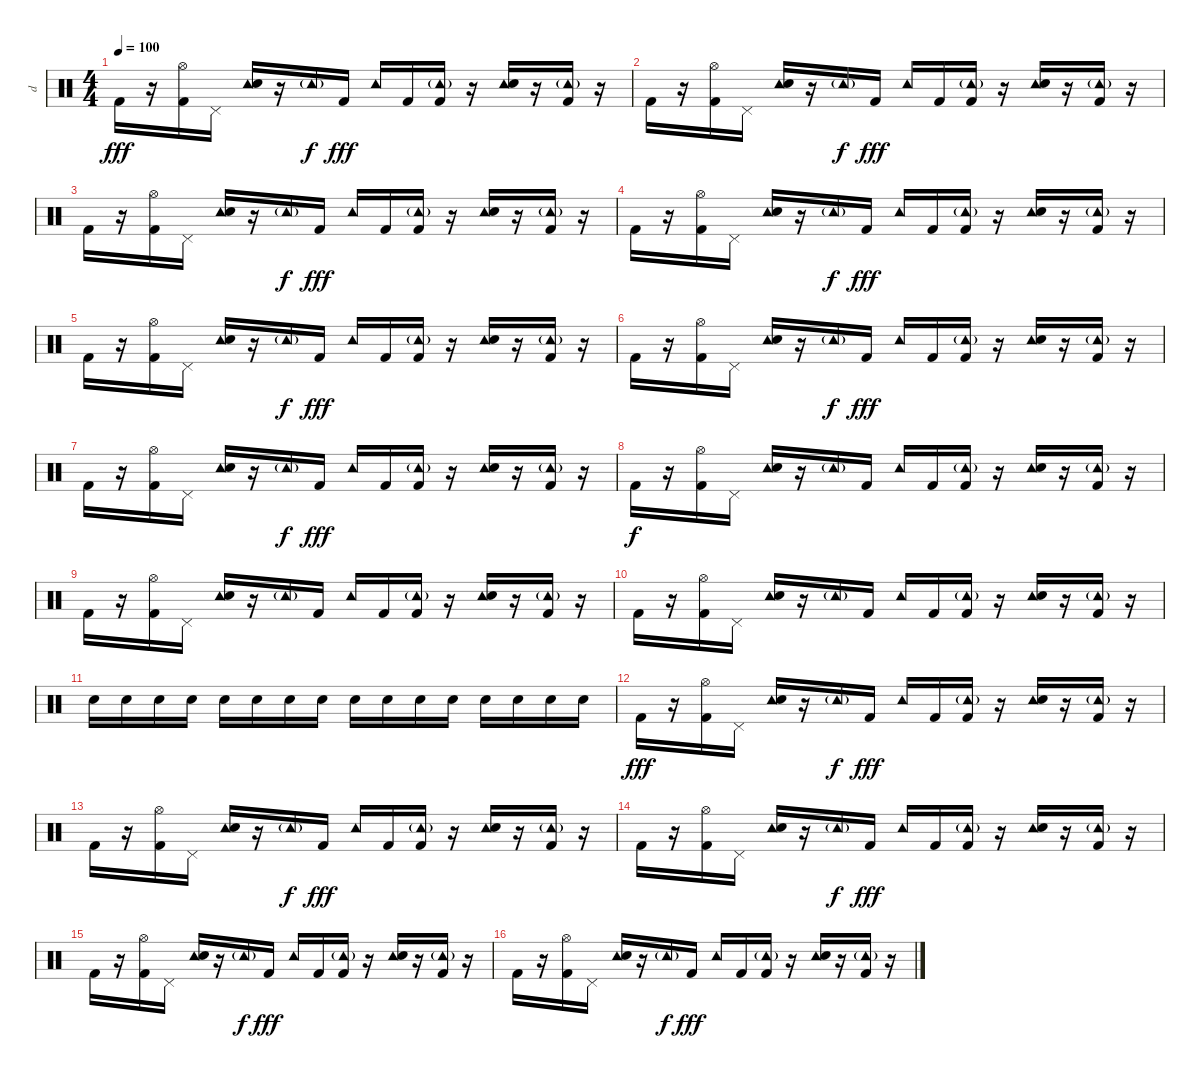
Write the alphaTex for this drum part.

\track ("d" "d") {instrument percussion}
\staff {score}
\articulation defaults
\ts (4 4)
\tempo 100
\clef neutral
\ks c "Kick (hit) 2".16{dy fff}
r.16 ("Hi-Hat (open)" "Kick (hit) 2").16 "Pedal Hi-Hat (hit)".16 ("Tambourine (hit)" "Snare (hit) 2").16 r.16 "Tambourine (hit)"{g}.16{dy f} "Kick (hit) 2".16{dy fff} "Tambourine (hit)".16 "Kick (hit) 2".16 ("Tambourine (hit)"{g} "Kick (hit) 2").16 r.16 ("Tambourine (hit)" "Snare (hit) 2").16 r.16 ("Tambourine (hit)"{g} "Kick (hit) 2").16 r.16 |
"Kick (hit) 2".16 r.16 ("Hi-Hat (open)" "Kick (hit) 2").16 "Pedal Hi-Hat (hit)".16 ("Tambourine (hit)" "Snare (hit) 2").16 r.16 "Tambourine (hit)"{g}.16{dy f} "Kick (hit) 2".16{dy fff} "Tambourine (hit)".16 "Kick (hit) 2".16 ("Tambourine (hit)"{g} "Kick (hit) 2").16 r.16 ("Tambourine (hit)" "Snare (hit) 2").16 r.16 ("Tambourine (hit)"{g} "Kick (hit) 2").16 r.16 |
"Kick (hit) 2".16 r.16 ("Hi-Hat (open)" "Kick (hit) 2").16 "Pedal Hi-Hat (hit)".16 ("Tambourine (hit)" "Snare (hit) 2").16 r.16 "Tambourine (hit)"{g}.16{dy f} "Kick (hit) 2".16{dy fff} "Tambourine (hit)".16 "Kick (hit) 2".16 ("Tambourine (hit)"{g} "Kick (hit) 2").16 r.16 ("Tambourine (hit)" "Snare (hit) 2").16 r.16 ("Tambourine (hit)"{g} "Kick (hit) 2").16 r.16 |
"Kick (hit) 2".16 r.16 ("Hi-Hat (open)" "Kick (hit) 2").16 "Pedal Hi-Hat (hit)".16 ("Tambourine (hit)" "Snare (hit) 2").16 r.16 "Tambourine (hit)"{g}.16{dy f} "Kick (hit) 2".16{dy fff} "Tambourine (hit)".16 "Kick (hit) 2".16 ("Tambourine (hit)"{g} "Kick (hit) 2").16 r.16 ("Tambourine (hit)" "Snare (hit) 2").16 r.16 ("Tambourine (hit)"{g} "Kick (hit) 2").16 r.16 |
"Kick (hit) 2".16 r.16 ("Hi-Hat (open)" "Kick (hit) 2").16 "Pedal Hi-Hat (hit)".16 ("Tambourine (hit)" "Snare (hit) 2").16 r.16 "Tambourine (hit)"{g}.16{dy f} "Kick (hit) 2".16{dy fff} "Tambourine (hit)".16 "Kick (hit) 2".16 ("Tambourine (hit)"{g} "Kick (hit) 2").16 r.16 ("Tambourine (hit)" "Snare (hit) 2").16 r.16 ("Tambourine (hit)"{g} "Kick (hit) 2").16 r.16 |
"Kick (hit) 2".16 r.16 ("Hi-Hat (open)" "Kick (hit) 2").16 "Pedal Hi-Hat (hit)".16 ("Tambourine (hit)" "Snare (hit) 2").16 r.16 "Tambourine (hit)"{g}.16{dy f} "Kick (hit) 2".16{dy fff} "Tambourine (hit)".16 "Kick (hit) 2".16 ("Tambourine (hit)"{g} "Kick (hit) 2").16 r.16 ("Tambourine (hit)" "Snare (hit) 2").16 r.16 ("Tambourine (hit)"{g} "Kick (hit) 2").16 r.16 |
"Kick (hit) 2".16 r.16 ("Hi-Hat (open)" "Kick (hit) 2").16 "Pedal Hi-Hat (hit)".16 ("Tambourine (hit)" "Snare (hit) 2").16 r.16 "Tambourine (hit)"{g}.16{dy f} "Kick (hit) 2".16{dy fff} "Tambourine (hit)".16 "Kick (hit) 2".16 ("Tambourine (hit)"{g} "Kick (hit) 2").16 r.16 ("Tambourine (hit)" "Snare (hit) 2").16 r.16 ("Tambourine (hit)"{g} "Kick (hit) 2").16 r.16 |
"Kick (hit) 2".16{dy f} r.16 ("Hi-Hat (open)" "Kick (hit) 2").16 "Pedal Hi-Hat (hit)".16 ("Tambourine (hit)" "Snare (hit) 2").16 r.16 "Tambourine (hit)"{g}.16 "Kick (hit) 2".16 "Tambourine (hit)".16 "Kick (hit) 2".16 ("Tambourine (hit)"{g} "Kick (hit) 2").16 r.16 ("Tambourine (hit)" "Snare (hit) 2").16 r.16 ("Tambourine (hit)"{g} "Kick (hit) 2").16 r.16 |
"Kick (hit) 2".16 r.16 ("Hi-Hat (open)" "Kick (hit) 2").16 "Pedal Hi-Hat (hit)".16 ("Tambourine (hit)" "Snare (hit) 2").16 r.16 "Tambourine (hit)"{g}.16 "Kick (hit) 2".16 "Tambourine (hit)".16 "Kick (hit) 2".16 ("Tambourine (hit)"{g} "Kick (hit) 2").16 r.16 ("Tambourine (hit)" "Snare (hit) 2").16 r.16 ("Tambourine (hit)"{g} "Kick (hit) 2").16 r.16 |
"Kick (hit) 2".16 r.16 ("Hi-Hat (open)" "Kick (hit) 2").16 "Pedal Hi-Hat (hit)".16 ("Tambourine (hit)" "Snare (hit) 2").16 r.16 "Tambourine (hit)"{g}.16 "Kick (hit) 2".16 "Tambourine (hit)".16 "Kick (hit) 2".16 ("Tambourine (hit)"{g} "Kick (hit) 2").16 r.16 ("Tambourine (hit)" "Snare (hit) 2").16 r.16 ("Tambourine (hit)"{g} "Kick (hit) 2").16 r.16 |
"Snare (hit) 2".16 "Snare (hit) 2".16 "Snare (hit) 2".16 "Snare (hit) 2".16 "Snare (hit) 2".16 "Snare (hit) 2".16 "Snare (hit) 2".16 "Snare (hit) 2".16 "Snare (hit) 2".16 "Snare (hit) 2".16 "Snare (hit) 2".16 "Snare (hit) 2".16 "Snare (hit) 2".16 "Snare (hit) 2".16 "Snare (hit) 2".16 "Snare (hit) 2".16 |
"Kick (hit) 2".16{dy fff} r.16 ("Hi-Hat (open)" "Kick (hit) 2").16 "Pedal Hi-Hat (hit)".16 ("Tambourine (hit)" "Snare (hit) 2").16 r.16 "Tambourine (hit)"{g}.16{dy f} "Kick (hit) 2".16{dy fff} "Tambourine (hit)".16 "Kick (hit) 2".16 ("Tambourine (hit)"{g} "Kick (hit) 2").16 r.16 ("Tambourine (hit)" "Snare (hit) 2").16 r.16 ("Tambourine (hit)"{g} "Kick (hit) 2").16 r.16 |
"Kick (hit) 2".16 r.16 ("Hi-Hat (open)" "Kick (hit) 2").16 "Pedal Hi-Hat (hit)".16 ("Tambourine (hit)" "Snare (hit) 2").16 r.16 "Tambourine (hit)"{g}.16{dy f} "Kick (hit) 2".16{dy fff} "Tambourine (hit)".16 "Kick (hit) 2".16 ("Tambourine (hit)"{g} "Kick (hit) 2").16 r.16 ("Tambourine (hit)" "Snare (hit) 2").16 r.16 ("Tambourine (hit)"{g} "Kick (hit) 2").16 r.16 |
"Kick (hit) 2".16 r.16 ("Hi-Hat (open)" "Kick (hit) 2").16 "Pedal Hi-Hat (hit)".16 ("Tambourine (hit)" "Snare (hit) 2").16 r.16 "Tambourine (hit)"{g}.16{dy f} "Kick (hit) 2".16{dy fff} "Tambourine (hit)".16 "Kick (hit) 2".16 ("Tambourine (hit)"{g} "Kick (hit) 2").16 r.16 ("Tambourine (hit)" "Snare (hit) 2").16 r.16 ("Tambourine (hit)"{g} "Kick (hit) 2").16 r.16 |
"Kick (hit) 2".16 r.16 ("Hi-Hat (open)" "Kick (hit) 2").16 "Pedal Hi-Hat (hit)".16 ("Tambourine (hit)" "Snare (hit) 2").16 r.16 "Tambourine (hit)"{g}.16{dy f} "Kick (hit) 2".16{dy fff} "Tambourine (hit)".16 "Kick (hit) 2".16 ("Tambourine (hit)"{g} "Kick (hit) 2").16 r.16 ("Tambourine (hit)" "Snare (hit) 2").16 r.16 ("Tambourine (hit)"{g} "Kick (hit) 2").16 r.16 |
"Kick (hit) 2".16 r.16 ("Hi-Hat (open)" "Kick (hit) 2").16 "Pedal Hi-Hat (hit)".16 ("Tambourine (hit)" "Snare (hit) 2").16 r.16 "Tambourine (hit)"{g}.16{dy f} "Kick (hit) 2".16{dy fff} "Tambourine (hit)".16 "Kick (hit) 2".16 ("Tambourine (hit)"{g} "Kick (hit) 2").16 r.16 ("Tambourine (hit)" "Snare (hit) 2").16 r.16 ("Tambourine (hit)"{g} "Kick (hit) 2").16 r.16
